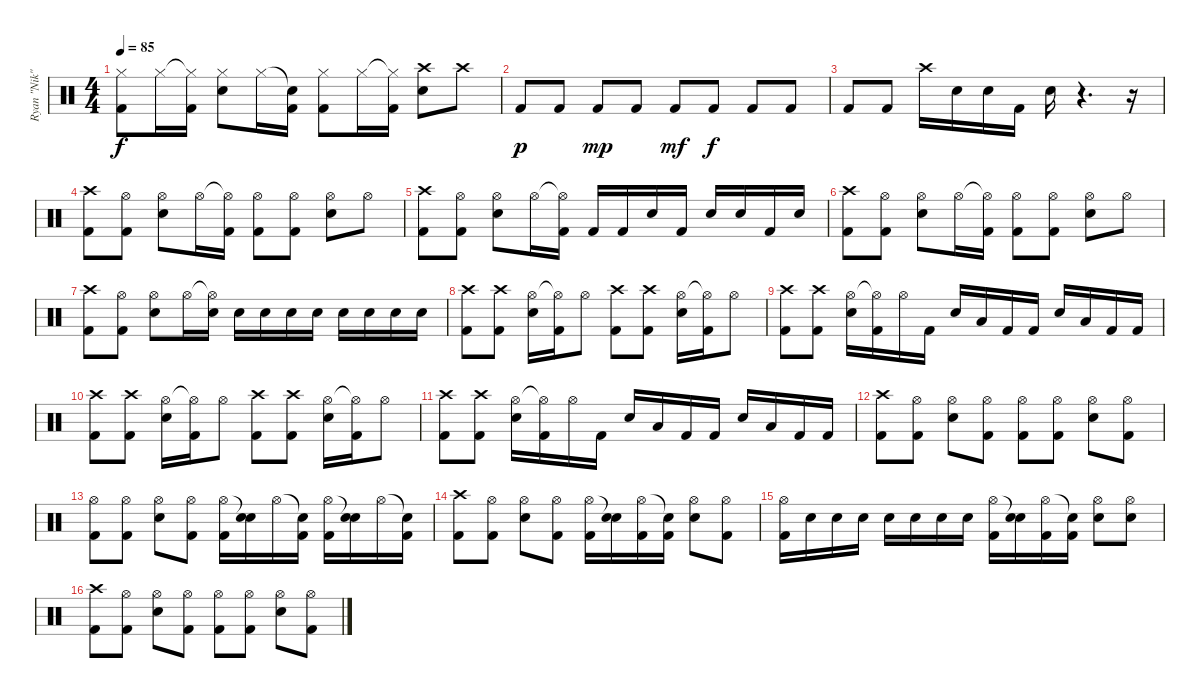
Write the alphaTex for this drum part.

\track ("Ryan \"Nik\" Vikedal (Drums)" "Ryan \"Nik\"") {instrument percussion}
\staff {score}
\articulation defaults
\ts (4 4)
\tempo 85
\clef neutral
\ks c
("Hi-Hat (closed)" "Kick (hit) 2").8{dy f} "Hi-Hat (closed)".16 ("Hi-Hat (closed)"{t} "Kick (hit) 2").16 ("Hi-Hat (closed)" "Electric Snare (hit)").8 "Hi-Hat (closed)".16 ("Snare (hit)"{t} "Kick (hit) 2").16 ("Hi-Hat (closed)" "Kick (hit) 2").8 "Hi-Hat (closed)".16 ("Hi-Hat (closed)"{t} "Kick (hit) 2").16 ("Crash high (hit)" "Electric Snare (hit)").8 "Crash high (hit)".8 |
"Kick (hit) 2".8{dy p} "Kick (hit) 2".8 "Kick (hit) 2".8{dy mp} "Kick (hit) 2".8 "Kick (hit) 2".8{dy mf} "Kick (hit) 2".8{dy f} "Kick (hit) 2".8 "Kick (hit) 2".8 |
"Kick (hit) 2".8 "Kick (hit) 2".8 "Crash high (hit)".16 "Electric Snare (hit)".16 "Electric Snare (hit)".16 "Kick (hit) 2".16 "Electric Snare (hit)".16 r.4{d} r.16 |
("Crash high (hit)" "Kick (hit) 2").8 ("Hi-Hat (open)" "Kick (hit) 2").8 ("Hi-Hat (open)" "Electric Snare (hit)").8 "Hi-Hat (open)".16 ("Hi-Hat (open)"{t} "Kick (hit) 2").16 ("Hi-Hat (open)" "Kick (hit) 2").8 ("Hi-Hat (open)" "Kick (hit) 2").8 ("Hi-Hat (open)" "Electric Snare (hit)").8 "Hi-Hat (open)".8 |
("Crash high (hit)" "Kick (hit) 2").8 ("Hi-Hat (open)" "Kick (hit) 2").8 ("Hi-Hat (open)" "Electric Snare (hit)").8 "Hi-Hat (open)".16 ("Hi-Hat (open)"{t} "Kick (hit) 2").16 "Kick (hit) 2".16 "Kick (hit) 2".16 "Electric Snare (hit)".16 "Kick (hit) 2".16 "Electric Snare (hit)".16 "Electric Snare (hit)".16 "Kick (hit) 2".16 "Electric Snare (hit)".16 |
("Crash high (hit)" "Kick (hit) 2").8 ("Hi-Hat (open)" "Kick (hit) 2").8 ("Hi-Hat (open)" "Electric Snare (hit)").8 "Hi-Hat (open)".16 ("Hi-Hat (open)"{t} "Kick (hit) 2").16 ("Hi-Hat (open)" "Kick (hit) 2").8 ("Hi-Hat (open)" "Kick (hit) 2").8 ("Hi-Hat (open)" "Electric Snare (hit)").8 "Hi-Hat (open)".8 |
("Crash high (hit)" "Kick (hit) 2").8 ("Hi-Hat (open)" "Kick (hit) 2").8 ("Hi-Hat (open)" "Electric Snare (hit)").8 "Hi-Hat (open)".16 ("Hi-Hat (open)"{t} "Electric Snare (hit)").16 "Electric Snare (hit)".16 "Electric Snare (hit)".16 "Electric Snare (hit)".16 "Electric Snare (hit)".16 "Electric Snare (hit)".16 "Electric Snare (hit)".16 "Electric Snare (hit)".16 "Electric Snare (hit)".16 |
("Crash high (hit)" "Kick (hit) 2").8 ("Crash high (hit)" "Kick (hit) 2").8 ("Hi-Hat (open)" "Electric Snare (hit)").16 ("Hi-Hat (open)"{t} "Kick (hit) 2").16 "Hi-Hat (open)".8 ("Crash high (hit)" "Kick (hit) 2").8 ("Crash high (hit)" "Kick (hit) 2").8 ("Hi-Hat (open)" "Electric Snare (hit)").16 ("Hi-Hat (open)"{t} "Kick (hit) 2").16 "Hi-Hat (open)".8 |
("Crash high (hit)" "Kick (hit) 2").8 ("Crash high (hit)" "Kick (hit) 2").8 ("Hi-Hat (open)" "Electric Snare (hit)").16 ("Hi-Hat (open)"{t} "Kick (hit) 2").16 "Hi-Hat (open)".16 "Kick (hit) 2".16 "Electric Snare (hit)".16 "Low Tom (hit)".16 "Kick (hit) 2".16 "Kick (hit) 2".16 "Electric Snare (hit)".16 "Low Tom (hit)".16 "Kick (hit) 2".16 "Kick (hit) 2".16 |
("Crash high (hit)" "Kick (hit) 2").8 ("Crash high (hit)" "Kick (hit) 2").8 ("Hi-Hat (open)" "Electric Snare (hit)").16 ("Hi-Hat (open)"{t} "Kick (hit) 2").16 "Hi-Hat (open)".8 ("Crash high (hit)" "Kick (hit) 2").8 ("Crash high (hit)" "Kick (hit) 2").8 ("Hi-Hat (open)" "Electric Snare (hit)").16 ("Hi-Hat (open)"{t} "Kick (hit) 2").16 "Hi-Hat (open)".8 |
("Crash high (hit)" "Kick (hit) 2").8 ("Crash high (hit)" "Kick (hit) 2").8 ("Hi-Hat (open)" "Electric Snare (hit)").16 ("Hi-Hat (open)"{t} "Kick (hit) 2").16 "Hi-Hat (open)".16 "Kick (hit) 2".16 "Electric Snare (hit)".16 "Low Tom (hit)".16 "Kick (hit) 2".16 "Kick (hit) 2".16 "Electric Snare (hit)".16 "Low Tom (hit)".16 "Kick (hit) 2".16 "Kick (hit) 2".16 |
("Crash high (hit)" "Kick (hit) 2").8 ("Hi-Hat (open)" "Kick (hit) 2").8 ("Hi-Hat (open)" "Electric Snare (hit)").8 ("Hi-Hat (open)" "Kick (hit) 2").8 ("Hi-Hat (open)" "Kick (hit) 2").8 ("Hi-Hat (open)" "Kick (hit) 2").8 ("Hi-Hat (open)" "Electric Snare (hit)").8 ("Hi-Hat (open)" "Kick (hit) 2").8 |
("Hi-Hat (open)" "Kick (hit) 2").8 ("Hi-Hat (open)" "Kick (hit) 2").8 ("Hi-Hat (open)" "Electric Snare (hit)").8 ("Hi-Hat (open)" "Kick (hit) 2").8 ("Hi-Hat (open)" "Kick (hit) 2").16 ("Snare (hit)"{t} "Electric Snare (hit)").16 "Hi-Hat (open)".16 ("Snare (hit)"{t} "Kick (hit) 2").16 ("Hi-Hat (open)" "Kick (hit) 2").16 ("Snare (hit)"{t} "Electric Snare (hit)").16 "Hi-Hat (open)".16 ("Snare (hit)"{t} "Kick (hit) 2").16 |
("Crash high (hit)" "Kick (hit) 2").8 ("Hi-Hat (open)" "Kick (hit) 2").8 ("Hi-Hat (open)" "Electric Snare (hit)").8 ("Hi-Hat (open)" "Kick (hit) 2").8 ("Hi-Hat (open)" "Kick (hit) 2").16 ("Snare (hit)"{t} "Electric Snare (hit)").16 ("Hi-Hat (open)" "Kick (hit) 2").16 ("Snare (hit)"{t} "Kick (hit) 2").16 ("Hi-Hat (open)" "Electric Snare (hit)").8 ("Hi-Hat (open)" "Kick (hit) 2").8 |
("Hi-Hat (open)" "Kick (hit) 2").16 "Electric Snare (hit)".16 "Electric Snare (hit)".16 "Electric Snare (hit)".16 "Electric Snare (hit)".16 "Electric Snare (hit)".16 "Electric Snare (hit)".16 "Electric Snare (hit)".16 ("Hi-Hat (open)" "Kick (hit) 2").16 ("Snare (hit)"{t} "Electric Snare (hit)").16 ("Hi-Hat (open)" "Kick (hit) 2").16 ("Snare (hit)"{t} "Kick (hit) 2").16 ("Hi-Hat (open)" "Electric Snare (hit)").8 ("Hi-Hat (open)" "Electric Snare (hit)").8 |
("Crash high (hit)" "Kick (hit) 2").8 ("Hi-Hat (open)" "Kick (hit) 2").8 ("Hi-Hat (open)" "Electric Snare (hit)").8 ("Hi-Hat (open)" "Kick (hit) 2").8 ("Hi-Hat (open)" "Kick (hit) 2").8 ("Hi-Hat (open)" "Kick (hit) 2").8 ("Hi-Hat (open)" "Electric Snare (hit)").8 ("Hi-Hat (open)" "Kick (hit) 2").8
